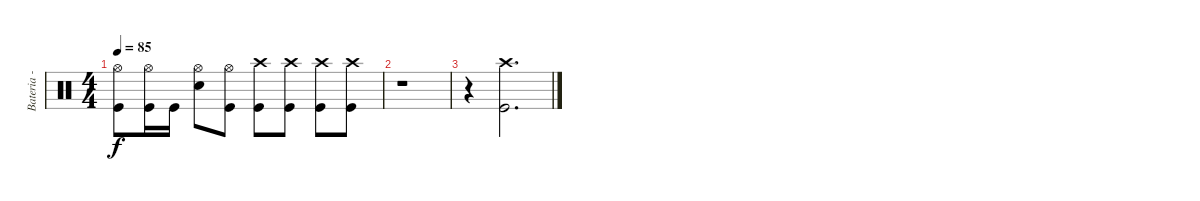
\track ("Bateria - Joaquin" "Bateria - ") {instrument percussion}
\staff {score}
\articulation defaults
\ts (4 4)
\tempo 85
\clef neutral
\ks c
("Hi-Hat (open)" "Kick (hit)").8{dy f} ("Hi-Hat (open)" "Kick (hit)").16 "Kick (hit)".16 ("Hi-Hat (open)" "Snare (hit) 2").8 ("Hi-Hat (open)" "Kick (hit)").8 ("Crash high (hit)" "Kick (hit)").8 ("Crash high (hit)" "Kick (hit)").8 ("Crash high (hit)" "Kick (hit)").8 ("Crash high (hit)" "Kick (hit)").8 |
r.1 |
r.4 ("Crash high (hit)" "Kick (hit)").2{d}
